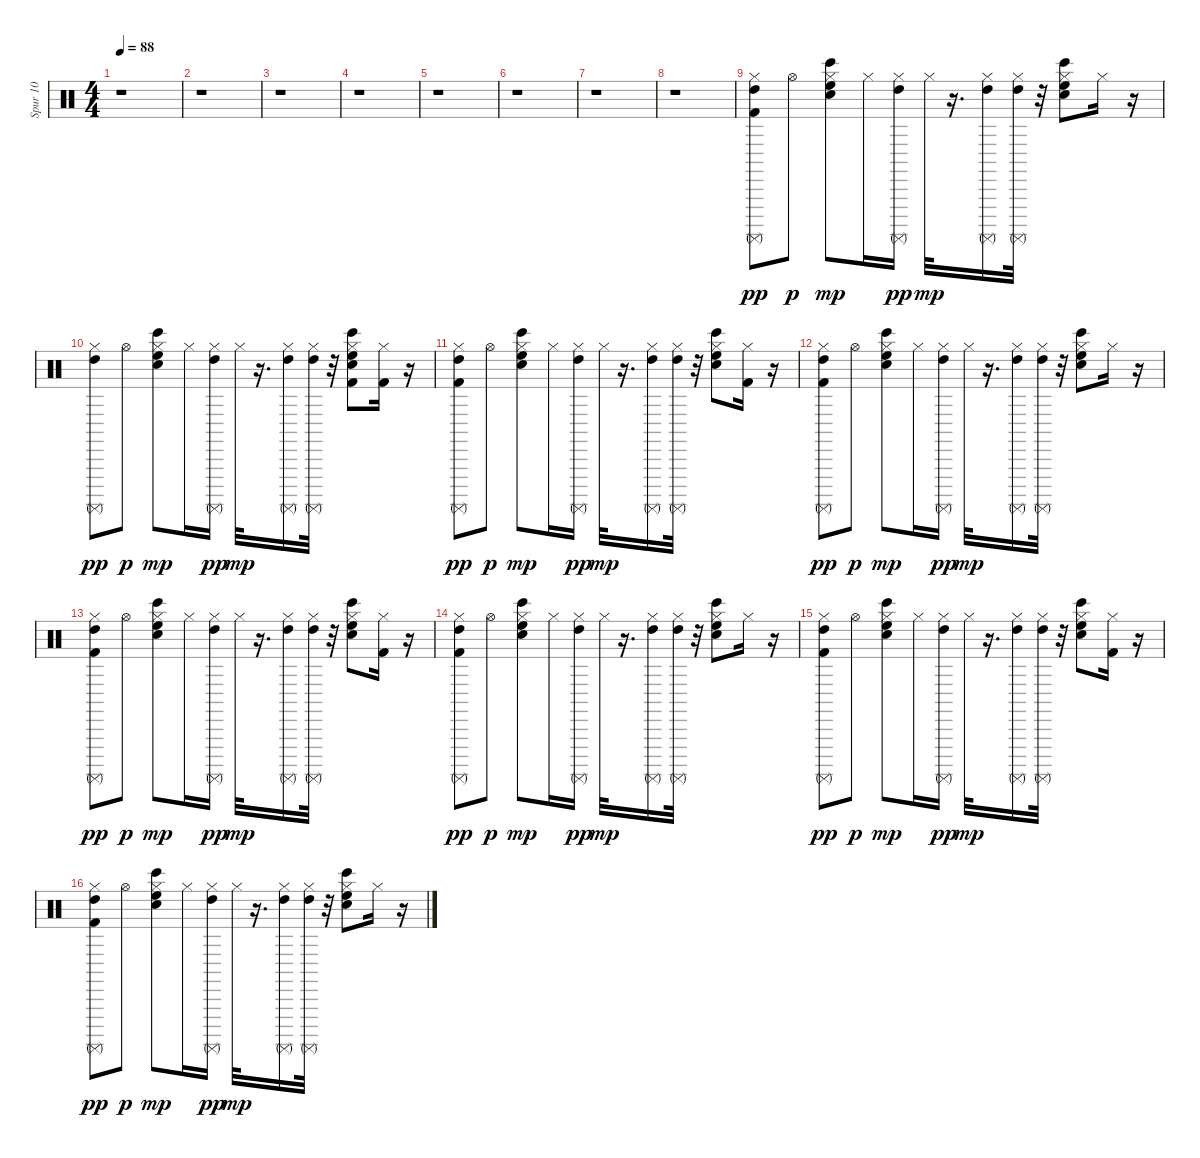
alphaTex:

\track ("Spur 10" "Spur 10") {instrument percussion}
\staff {score}
\articulation defaults
\ts (4 4)
\tempo 88
\clef neutral
\ks c
r.1{dy pp} |
r.1 |
r.1 |
r.1 |
r.1 |
r.1 |
r.1 |
r.1 |
("Kick (hit) 2" "High Tom (hit)" "Surdo (mute)" "Hi-Hat (closed)").8 "Hi-Hat (open)".8{dy p} ("Bongo High (hit)" "Hand Clap (hit)" "High Floor Tom (hit)" "Hi-Hat (closed)").8{dy mp} "Hi-Hat (closed)".16 ("High Tom (hit)" "Surdo (mute)" "Hi-Hat (closed)").16{dy pp} "Hi-Hat (closed)".32{dy mp} r.16{d} ("High Tom (hit)" "Surdo (mute)" "Hi-Hat (closed)").16 ("Hi-Hat (closed)" "High Tom (hit)" "Surdo (mute)").32 r.32 ("Bongo High (hit)" "Hand Clap (hit)" "High Floor Tom (hit)" "Hi-Hat (closed)").8 "Hi-Hat (closed)".16 r.16 |
("High Tom (hit)" "Surdo (mute)" "Hi-Hat (closed)").8{dy pp} "Hi-Hat (open)".8{dy p} ("Bongo High (hit)" "Hand Clap (hit)" "High Floor Tom (hit)" "Hi-Hat (closed)").8{dy mp} "Hi-Hat (closed)".16 ("High Tom (hit)" "Surdo (mute)" "Hi-Hat (closed)").16{dy pp} "Hi-Hat (closed)".32{dy mp} r.16{d} ("High Tom (hit)" "Surdo (mute)" "Hi-Hat (closed)").16 ("Hi-Hat (closed)" "High Tom (hit)" "Surdo (mute)").32 r.32 ("Bongo High (hit)" "Kick (hit) 2" "Hand Clap (hit)" "High Floor Tom (hit)" "Hi-Hat (closed)").8 ("Kick (hit) 2" "Hi-Hat (closed)").16 r.16 |
("Kick (hit) 2" "High Tom (hit)" "Surdo (mute)" "Hi-Hat (closed)").8{dy pp} "Hi-Hat (open)".8{dy p} ("Bongo High (hit)" "Hand Clap (hit)" "High Floor Tom (hit)" "Hi-Hat (closed)").8{dy mp} "Hi-Hat (closed)".16 ("High Tom (hit)" "Surdo (mute)" "Hi-Hat (closed)").16{dy pp} "Hi-Hat (closed)".32{dy mp} r.16{d} ("High Tom (hit)" "Surdo (mute)" "Hi-Hat (closed)").16 ("Hi-Hat (closed)" "High Tom (hit)" "Surdo (mute)").32 r.32 ("Bongo High (hit)" "Hand Clap (hit)" "High Floor Tom (hit)" "Hi-Hat (closed)").8 ("Kick (hit) 2" "Hi-Hat (closed)").16 r.16 |
("Kick (hit) 2" "High Tom (hit)" "Surdo (mute)" "Hi-Hat (closed)").8{dy pp} "Hi-Hat (open)".8{dy p} ("Bongo High (hit)" "Hand Clap (hit)" "High Floor Tom (hit)" "Hi-Hat (closed)").8{dy mp} "Hi-Hat (closed)".16 ("High Tom (hit)" "Surdo (mute)" "Hi-Hat (closed)").16{dy pp} "Hi-Hat (closed)".32{dy mp} r.16{d} ("High Tom (hit)" "Surdo (mute)" "Hi-Hat (closed)").16 ("Hi-Hat (closed)" "High Tom (hit)" "Surdo (mute)").32 r.32 ("Bongo High (hit)" "Hand Clap (hit)" "High Floor Tom (hit)" "Hi-Hat (closed)").8 "Hi-Hat (closed)".16 r.16 |
("Kick (hit) 2" "High Tom (hit)" "Surdo (mute)" "Hi-Hat (closed)").8{dy pp} "Hi-Hat (open)".8{dy p} ("Bongo High (hit)" "Hand Clap (hit)" "High Floor Tom (hit)" "Hi-Hat (closed)").8{dy mp} "Hi-Hat (closed)".16 ("High Tom (hit)" "Surdo (mute)" "Hi-Hat (closed)").16{dy pp} "Hi-Hat (closed)".32{dy mp} r.16{d} ("High Tom (hit)" "Surdo (mute)" "Hi-Hat (closed)").16 ("Hi-Hat (closed)" "High Tom (hit)" "Surdo (mute)").32 r.32 ("Bongo High (hit)" "Hand Clap (hit)" "High Floor Tom (hit)" "Hi-Hat (closed)").8 ("Kick (hit) 2" "Hi-Hat (closed)").16 r.16 |
("Kick (hit) 2" "High Tom (hit)" "Surdo (mute)" "Hi-Hat (closed)").8{dy pp} "Hi-Hat (open)".8{dy p} ("Bongo High (hit)" "Hand Clap (hit)" "High Floor Tom (hit)" "Hi-Hat (closed)").8{dy mp} "Hi-Hat (closed)".16 ("High Tom (hit)" "Surdo (mute)" "Hi-Hat (closed)").16{dy pp} "Hi-Hat (closed)".32{dy mp} r.16{d} ("High Tom (hit)" "Surdo (mute)" "Hi-Hat (closed)").16 ("Hi-Hat (closed)" "High Tom (hit)" "Surdo (mute)").32 r.32 ("Bongo High (hit)" "Hand Clap (hit)" "High Floor Tom (hit)" "Hi-Hat (closed)").8 "Hi-Hat (closed)".16 r.16 |
("Kick (hit) 2" "High Tom (hit)" "Surdo (mute)" "Hi-Hat (closed)").8{dy pp} "Hi-Hat (open)".8{dy p} ("Bongo High (hit)" "Hand Clap (hit)" "High Floor Tom (hit)" "Hi-Hat (closed)").8{dy mp} "Hi-Hat (closed)".16 ("High Tom (hit)" "Surdo (mute)" "Hi-Hat (closed)").16{dy pp} "Hi-Hat (closed)".32{dy mp} r.16{d} ("High Tom (hit)" "Surdo (mute)" "Hi-Hat (closed)").16 ("Hi-Hat (closed)" "High Tom (hit)" "Surdo (mute)").32 r.32 ("Bongo High (hit)" "Hand Clap (hit)" "High Floor Tom (hit)" "Hi-Hat (closed)").8 ("Kick (hit) 2" "Hi-Hat (closed)").16 r.16 |
("Kick (hit) 2" "High Tom (hit)" "Surdo (mute)" "Hi-Hat (closed)").8{dy pp} "Hi-Hat (open)".8{dy p} ("Bongo High (hit)" "Hand Clap (hit)" "High Floor Tom (hit)" "Hi-Hat (closed)").8{dy mp} "Hi-Hat (closed)".16 ("High Tom (hit)" "Surdo (mute)" "Hi-Hat (closed)").16{dy pp} "Hi-Hat (closed)".32{dy mp} r.16{d} ("High Tom (hit)" "Surdo (mute)" "Hi-Hat (closed)").16 ("Hi-Hat (closed)" "High Tom (hit)" "Surdo (mute)").32 r.32 ("Bongo High (hit)" "Hand Clap (hit)" "High Floor Tom (hit)" "Hi-Hat (closed)").8 "Hi-Hat (closed)".16 r.16
